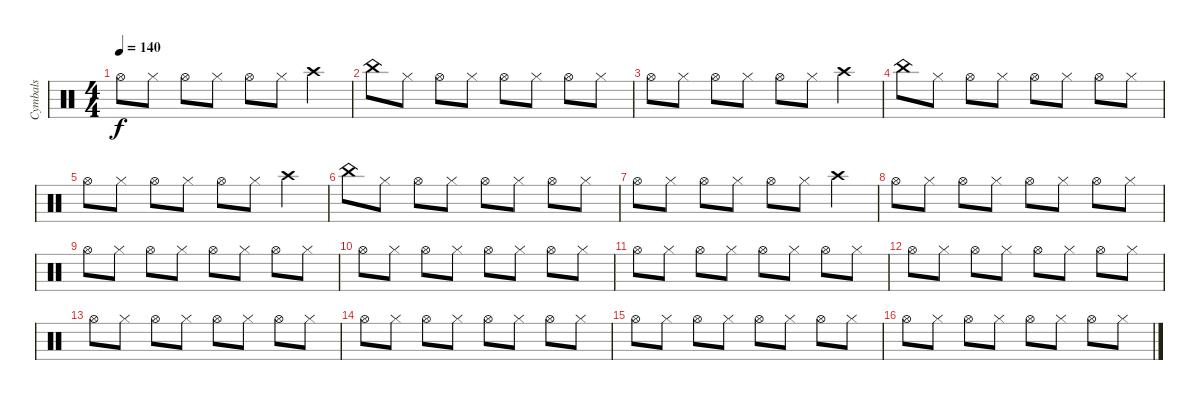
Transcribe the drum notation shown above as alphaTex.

\track ("Cymbals" "Cymbals") {instrument percussion}
\staff {score}
\articulation defaults
\ts (4 4)
\tempo 140
\clef neutral
\ks c "Hi-Hat (open)".8{dy f} "Hi-Hat (closed)".8 "Hi-Hat (open)".8 "Hi-Hat (closed)".8 "Hi-Hat (open)".8 "Hi-Hat (closed)".8 "Crash high (hit)".4
|
"China (hit)".8 "Hi-Hat (closed)".8 "Hi-Hat (open)".8 "Hi-Hat (closed)".8 "Hi-Hat (open)".8 "Hi-Hat (closed)".8 "Hi-Hat (open)".8 "Hi-Hat (closed)".8 |
"Hi-Hat (open)".8 "Hi-Hat (closed)".8 "Hi-Hat (open)".8 "Hi-Hat (closed)".8 "Hi-Hat (open)".8 "Hi-Hat (closed)".8 "Crash high (hit)".4 |
"China (hit)".8 "Hi-Hat (closed)".8 "Hi-Hat (open)".8 "Hi-Hat (closed)".8 "Hi-Hat (open)".8 "Hi-Hat (closed)".8 "Hi-Hat (open)".8 "Hi-Hat (closed)".8 |
"Hi-Hat (open)".8 "Hi-Hat (closed)".8 "Hi-Hat (open)".8 "Hi-Hat (closed)".8 "Hi-Hat (open)".8 "Hi-Hat (closed)".8 "Crash high (hit)".4 |
"China (hit)".8 "Hi-Hat (closed)".8 "Hi-Hat (open)".8 "Hi-Hat (closed)".8 "Hi-Hat (open)".8 "Hi-Hat (closed)".8 "Hi-Hat (open)".8 "Hi-Hat (closed)".8 |
"Hi-Hat (open)".8 "Hi-Hat (closed)".8 "Hi-Hat (open)".8 "Hi-Hat (closed)".8 "Hi-Hat (open)".8 "Hi-Hat (closed)".8 "Crash high (hit)".4 |
"Hi-Hat (open)".8 "Hi-Hat (closed)".8 "Hi-Hat (open)".8 "Hi-Hat (closed)".8 "Hi-Hat (open)".8 "Hi-Hat (closed)".8 "Hi-Hat (open)".8 "Hi-Hat (closed)".8 |
"Hi-Hat (open)".8 "Hi-Hat (closed)".8 "Hi-Hat (open)".8 "Hi-Hat (closed)".8 "Hi-Hat (open)".8 "Hi-Hat (closed)".8 "Hi-Hat (open)".8 "Hi-Hat (closed)".8 |
"Hi-Hat (open)".8 "Hi-Hat (closed)".8 "Hi-Hat (open)".8 "Hi-Hat (closed)".8 "Hi-Hat (open)".8 "Hi-Hat (closed)".8 "Hi-Hat (open)".8 "Hi-Hat (closed)".8 |
"Hi-Hat (open)".8 "Hi-Hat (closed)".8 "Hi-Hat (open)".8 "Hi-Hat (closed)".8 "Hi-Hat (open)".8 "Hi-Hat (closed)".8 "Hi-Hat (open)".8 "Hi-Hat (closed)".8 |
"Hi-Hat (open)".8 "Hi-Hat (closed)".8 "Hi-Hat (open)".8 "Hi-Hat (closed)".8 "Hi-Hat (open)".8 "Hi-Hat (closed)".8 "Hi-Hat (open)".8 "Hi-Hat (closed)".8 |
"Hi-Hat (open)".8 "Hi-Hat (closed)".8 "Hi-Hat (open)".8 "Hi-Hat (closed)".8 "Hi-Hat (open)".8 "Hi-Hat (closed)".8 "Hi-Hat (open)".8 "Hi-Hat (closed)".8 |
"Hi-Hat (open)".8 "Hi-Hat (closed)".8 "Hi-Hat (open)".8 "Hi-Hat (closed)".8 "Hi-Hat (open)".8 "Hi-Hat (closed)".8 "Hi-Hat (open)".8 "Hi-Hat (closed)".8 |
"Hi-Hat (open)".8 "Hi-Hat (closed)".8 "Hi-Hat (open)".8 "Hi-Hat (closed)".8 "Hi-Hat (open)".8 "Hi-Hat (closed)".8 "Hi-Hat (open)".8 "Hi-Hat (closed)".8 |
"Hi-Hat (open)".8 "Hi-Hat (closed)".8 "Hi-Hat (open)".8 "Hi-Hat (closed)".8 "Hi-Hat (open)".8 "Hi-Hat (closed)".8 "Hi-Hat (open)".8 "Hi-Hat (closed)".8
